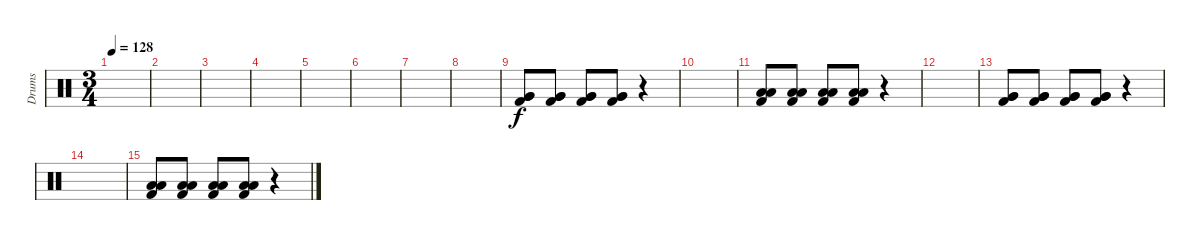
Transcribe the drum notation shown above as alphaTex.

\track ("Drums" "Drums") {instrument percussion}
\staff {score}
\articulation defaults
\ts (3 4)
\tempo 128
\clef neutral
\ks c
|
|
|
|
|
|
|
|
("Very Low Tom (hit)" "Very Low Tom (hit)" "Kick (hit) 2").8 ("Very Low Tom (hit)" "Very Low Tom (hit)" "Kick (hit) 2").8 ("Very Low Tom (hit)" "Very Low Tom (hit)" "Kick (hit) 2").8 ("Very Low Tom (hit)" "Very Low Tom (hit)" "Kick (hit) 2").8 r.4 |
|
("Low Tom (hit)" "Low Tom (hit)" "Kick (hit) 2").8 ("Low Tom (hit)" "Low Tom (hit)" "Kick (hit) 2").8 ("Low Tom (hit)" "Low Tom (hit)" "Kick (hit) 2").8 ("Low Tom (hit)" "Low Tom (hit)" "Kick (hit) 2").8 r.4 |
|
("Very Low Tom (hit)" "Very Low Tom (hit)" "Kick (hit) 2").8 ("Very Low Tom (hit)" "Very Low Tom (hit)" "Kick (hit) 2").8 ("Very Low Tom (hit)" "Very Low Tom (hit)" "Kick (hit) 2").8 ("Very Low Tom (hit)" "Very Low Tom (hit)" "Kick (hit) 2").8 r.4 |
|
("Low Tom (hit)" "Low Tom (hit)" "Kick (hit) 2").8 ("Low Tom (hit)" "Low Tom (hit)" "Kick (hit) 2").8 ("Low Tom (hit)" "Low Tom (hit)" "Kick (hit) 2").8 ("Low Tom (hit)" "Low Tom (hit)" "Kick (hit) 2").8 r.4
